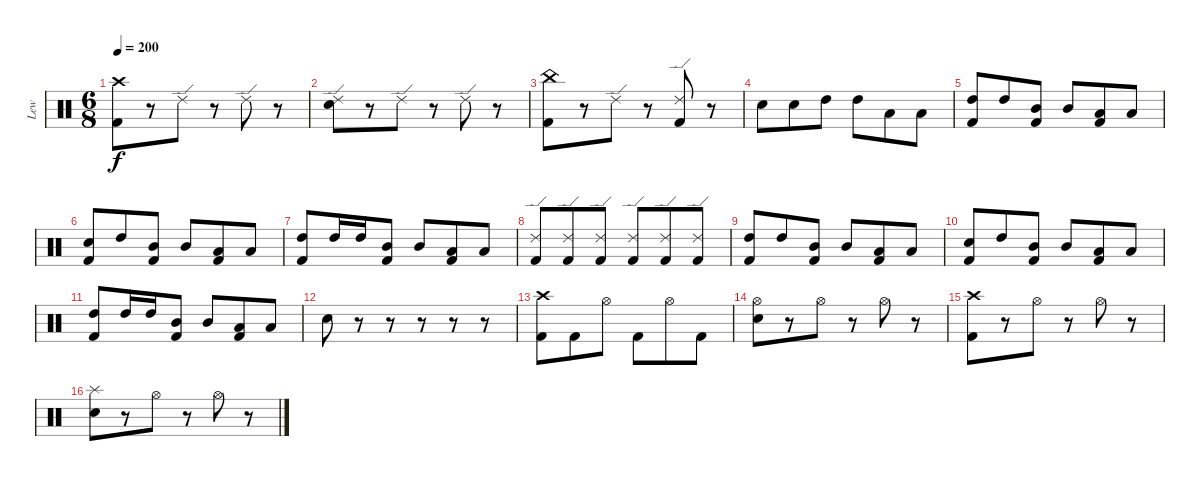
\track ("Lew" "Lew") {instrument percussion}
\staff {score}
\articulation defaults
\ts (6 8)
\tempo 200
\clef neutral
\ks c
("Crash high (hit)" "Kick (hit) 2").8{dy f} r.8 "Ride (edge) 2".8 r.8 "Ride (edge) 2".8 r.8 |
("Ride (edge) 2" "Electric Snare (hit)").8 r.8 "Ride (edge) 2".8 r.8 "Ride (edge) 2".8 r.8 |
("China (hit)" "Kick (hit) 2").8 r.8 "Ride (edge) 2".8 r.8 ("Ride (edge) 2" "Kick (hit) 2").8 r.8 |
"Electric Snare (hit)".8 "Electric Snare (hit)".8 "High Tom (hit)".8 "High Tom (hit)".8 "Low Tom (hit)".8 "Low Tom (hit)".8 |
("High Tom (hit)" "Kick (hit) 2").8 "High Tom (hit)".8 ("Mid Tom (hit)" "Kick (hit) 2").8 "Mid Tom (hit)".8 ("Low Tom (hit)" "Kick (hit) 2").8 "Low Tom (hit)".8 |
("Electric Snare (hit)" "Kick (hit) 2").8 "High Tom (hit)".8 ("Mid Tom (hit)" "Kick (hit) 2").8 "Mid Tom (hit)".8 ("Low Tom (hit)" "Kick (hit) 2").8 "Low Tom (hit)".8 |
("High Tom (hit)" "Kick (hit) 2").8 "High Tom (hit)".16 "High Tom (hit)".16 ("Mid Tom (hit)" "Kick (hit) 2").8 "Mid Tom (hit)".8 ("Low Tom (hit)" "Kick (hit) 2").8 "Low Tom (hit)".8 |
("Ride (edge) 2" "Kick (hit) 2").8 ("Ride (edge) 2" "Kick (hit) 2").8 ("Ride (edge) 2" "Kick (hit) 2").8 ("Ride (edge) 2" "Kick (hit) 2").8 ("Ride (edge) 2" "Kick (hit) 2").8 ("Ride (edge) 2" "Kick (hit) 2").8 |
("High Tom (hit)" "Kick (hit) 2").8 "High Tom (hit)".8 ("Mid Tom (hit)" "Kick (hit) 2").8 "Mid Tom (hit)".8 ("Low Tom (hit)" "Kick (hit) 2").8 "Low Tom (hit)".8 |
("Electric Snare (hit)" "Kick (hit) 2").8 "High Tom (hit)".8 ("Mid Tom (hit)" "Kick (hit) 2").8 "Mid Tom (hit)".8 ("Low Tom (hit)" "Kick (hit) 2").8 "Low Tom (hit)".8 |
("High Tom (hit)" "Kick (hit) 2").8 "High Tom (hit)".16 "High Tom (hit)".16 ("Mid Tom (hit)" "Kick (hit) 2").8 "Mid Tom (hit)".8 ("Low Tom (hit)" "Kick (hit) 2").8 "Low Tom (hit)".8 |
"Electric Snare (hit)".8 r.8 r.8 r.8 r.8 r.8 |
("Crash high (hit)" "Kick (hit) 2").8 "Kick (hit) 2".8 "Hi-Hat (open)".8 "Kick (hit) 2".8 "Hi-Hat (open)".8 "Kick (hit) 2".8 |
("Hi-Hat (open)" "Electric Snare (hit)").8 r.8 "Hi-Hat (open)".8 r.8 "Hi-Hat (open)".8 r.8 |
("Crash high (hit)" "Kick (hit) 2").8 r.8 "Hi-Hat (open)".8 r.8 "Hi-Hat (open)".8 r.8 |
("Splash (hit)" "Electric Snare (hit)").8 r.8 "Hi-Hat (open)".8 r.8 "Hi-Hat (open)".8 r.8
